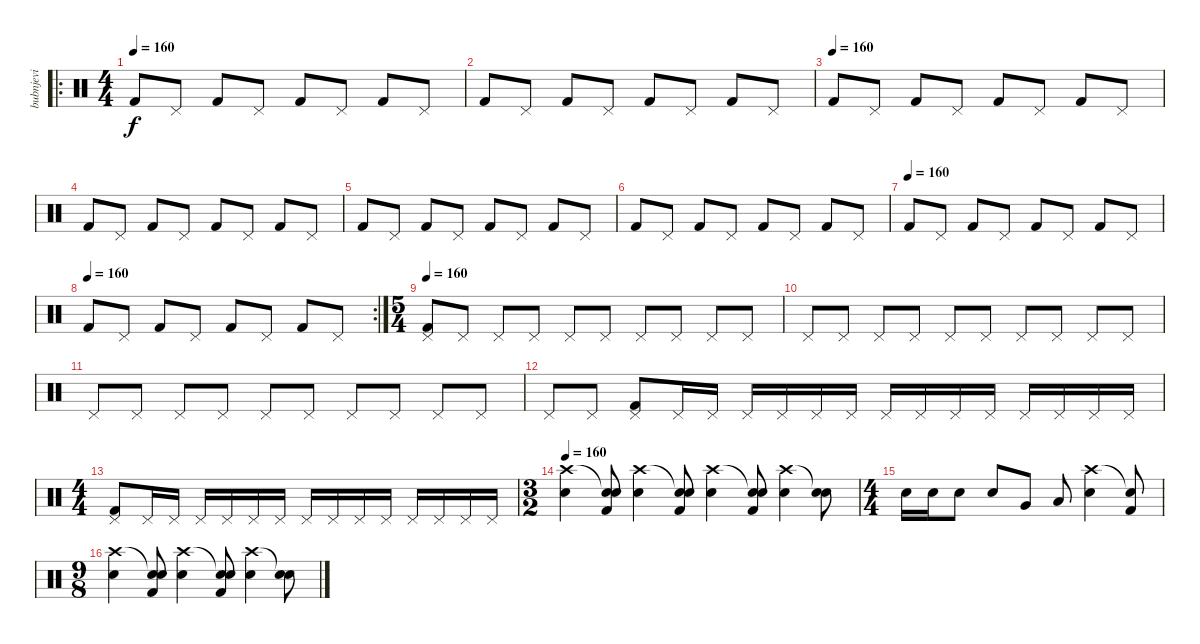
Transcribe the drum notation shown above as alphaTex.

\track ("bubnjevi" "bubnjevi") {instrument percussion}
\staff {score}
\articulation defaults
\ro
\ts (4 4)
\tempo 165
\tempo 160
\clef neutral
\ks c "Kick (hit) 2".8{dy f} "Pedal Hi-Hat (hit)".8 "Kick (hit) 2".8 "Pedal Hi-Hat (hit)".8 "Kick (hit) 2".8 "Pedal Hi-Hat (hit)".8 "Kick (hit) 2".8 "Pedal Hi-Hat (hit)".8
|
"Kick (hit) 2".8 "Pedal Hi-Hat (hit)".8 "Kick (hit) 2".8 "Pedal Hi-Hat (hit)".8 "Kick (hit) 2".8 "Pedal Hi-Hat (hit)".8 "Kick (hit) 2".8 "Pedal Hi-Hat (hit)".8 |
\tempo 165
\tempo (160)
"Kick (hit) 2".8 "Pedal Hi-Hat (hit)".8 "Kick (hit) 2".8 "Pedal Hi-Hat (hit)".8 "Kick (hit) 2".8 "Pedal Hi-Hat (hit)".8 "Kick (hit) 2".8 "Pedal Hi-Hat (hit)".8 |
"Kick (hit) 2".8 "Pedal Hi-Hat (hit)".8 "Kick (hit) 2".8 "Pedal Hi-Hat (hit)".8 "Kick (hit) 2".8 "Pedal Hi-Hat (hit)".8 "Kick (hit) 2".8 "Pedal Hi-Hat (hit)".8 |
"Kick (hit) 2".8 "Pedal Hi-Hat (hit)".8 "Kick (hit) 2".8 "Pedal Hi-Hat (hit)".8 "Kick (hit) 2".8 "Pedal Hi-Hat (hit)".8 "Kick (hit) 2".8 "Pedal Hi-Hat (hit)".8 |
"Kick (hit) 2".8 "Pedal Hi-Hat (hit)".8 "Kick (hit) 2".8 "Pedal Hi-Hat (hit)".8 "Kick (hit) 2".8 "Pedal Hi-Hat (hit)".8 "Kick (hit) 2".8 "Pedal Hi-Hat (hit)".8 |
\tempo 165
\tempo (160)
"Kick (hit) 2".8 "Pedal Hi-Hat (hit)".8 "Kick (hit) 2".8 "Pedal Hi-Hat (hit)".8 "Kick (hit) 2".8 "Pedal Hi-Hat (hit)".8 "Kick (hit) 2".8 "Pedal Hi-Hat (hit)".8 |
\rc 2
\tempo 165
\tempo (160)
"Kick (hit) 2".8 "Pedal Hi-Hat (hit)".8 "Kick (hit) 2".8 "Pedal Hi-Hat (hit)".8 "Kick (hit) 2".8 "Pedal Hi-Hat (hit)".8 "Kick (hit) 2".8 "Pedal Hi-Hat (hit)".8 |
\ts (5 4)
\tempo 160
("Pedal Hi-Hat (hit)" "Kick (hit) 2").8 "Pedal Hi-Hat (hit)".8 "Pedal Hi-Hat (hit)".8 "Pedal Hi-Hat (hit)".8 "Pedal Hi-Hat (hit)".8 "Pedal Hi-Hat (hit)".8 "Pedal Hi-Hat (hit)".8 "Pedal Hi-Hat (hit)".8 "Pedal Hi-Hat (hit)".8 "Pedal Hi-Hat (hit)".8 |
"Pedal Hi-Hat (hit)".8 "Pedal Hi-Hat (hit)".8 "Pedal Hi-Hat (hit)".8 "Pedal Hi-Hat (hit)".8 "Pedal Hi-Hat (hit)".8 "Pedal Hi-Hat (hit)".8 "Pedal Hi-Hat (hit)".8 "Pedal Hi-Hat (hit)".8 "Pedal Hi-Hat (hit)".8 "Pedal Hi-Hat (hit)".8 |
"Pedal Hi-Hat (hit)".8 "Pedal Hi-Hat (hit)".8 "Pedal Hi-Hat (hit)".8 "Pedal Hi-Hat (hit)".8 "Pedal Hi-Hat (hit)".8 "Pedal Hi-Hat (hit)".8 "Pedal Hi-Hat (hit)".8 "Pedal Hi-Hat (hit)".8 "Pedal Hi-Hat (hit)".8 "Pedal Hi-Hat (hit)".8 |
"Pedal Hi-Hat (hit)".8 "Pedal Hi-Hat (hit)".8 ("Pedal Hi-Hat (hit)" "Kick (hit) 2").8 "Pedal Hi-Hat (hit)".16 "Pedal Hi-Hat (hit)".16 "Pedal Hi-Hat (hit)".16 "Pedal Hi-Hat (hit)".16 "Pedal Hi-Hat (hit)".16 "Pedal Hi-Hat (hit)".16 "Pedal Hi-Hat (hit)".16 "Pedal Hi-Hat (hit)".16 "Pedal Hi-Hat (hit)".16 "Pedal Hi-Hat (hit)".16 "Pedal Hi-Hat (hit)".16 "Pedal Hi-Hat (hit)".16 "Pedal Hi-Hat (hit)".16 "Pedal Hi-Hat (hit)".16 |
\ts (4 4)
("Pedal Hi-Hat (hit)" "Kick (hit) 2").8 "Pedal Hi-Hat (hit)".16 "Pedal Hi-Hat (hit)".16 "Pedal Hi-Hat (hit)".16 "Pedal Hi-Hat (hit)".16 "Pedal Hi-Hat (hit)".16 "Pedal Hi-Hat (hit)".16 "Pedal Hi-Hat (hit)".16 "Pedal Hi-Hat (hit)".16 "Pedal Hi-Hat (hit)".16 "Pedal Hi-Hat (hit)".16 "Pedal Hi-Hat (hit)".16 "Pedal Hi-Hat (hit)".16 "Pedal Hi-Hat (hit)".16 "Pedal Hi-Hat (hit)".16 |
\ts (3 2)
\tempo 160
("Crash high (hit)" "Electric Snare (hit)").4 ("Snare (hit)"{t} "Electric Snare (hit)" "Kick (hit) 2").8 ("Crash high (hit)" "Electric Snare (hit)").4 ("Snare (hit)"{t} "Electric Snare (hit)" "Kick (hit) 2").8 ("Crash high (hit)" "Electric Snare (hit)").4 ("Snare (hit)"{t} "Electric Snare (hit)" "Kick (hit) 2").8 ("Crash high (hit)" "Electric Snare (hit)").4 ("Snare (hit)"{t} "Electric Snare (hit)").8 |
\ts (4 4)
"Electric Snare (hit)".16 "Electric Snare (hit)".16 "Electric Snare (hit)".8 "Electric Snare (hit)".8 "Very Low Tom (hit)".8 "Low Floor Tom (hit)".8 ("Crash high (hit)" "Electric Snare (hit)").4 ("Snare (hit)"{t} "Kick (hit) 2").8 |
\ts (9 8)
("Crash high (hit)" "Electric Snare (hit)").4 ("Snare (hit)"{t} "Electric Snare (hit)" "Kick (hit) 2").8 ("Crash high (hit)" "Electric Snare (hit)").4 ("Snare (hit)"{t} "Electric Snare (hit)" "Kick (hit) 2").8 ("Crash high (hit)" "Electric Snare (hit)").4 ("Snare (hit)"{t} "Electric Snare (hit)").8
